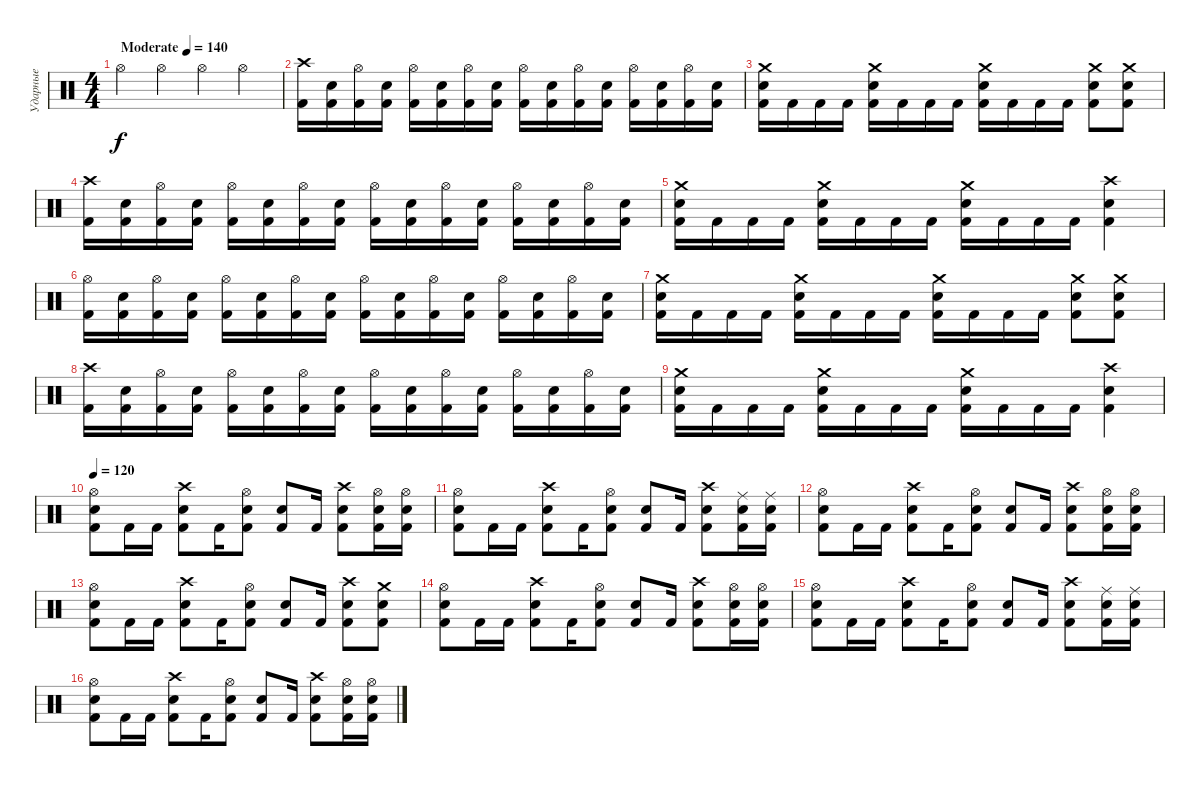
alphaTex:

\track ("Ударные" "Ударные") {instrument percussion}
\staff {score}
\articulation defaults
\ts (4 4)
\tempo (140 "Moderate")
\clef neutral
\ks c "Hi-Hat (open)".4{dy f} "Hi-Hat (open)".4 "Hi-Hat (open)".4 "Hi-Hat (open)".4
|
("Crash high (hit)" "Kick (hit) 2").16 ("Electric Snare (hit)" "Kick (hit) 2").16 ("Hi-Hat (open)" "Kick (hit) 2").16 ("Electric Snare (hit)" "Kick (hit) 2").16 ("Hi-Hat (open)" "Kick (hit) 2").16 ("Electric Snare (hit)" "Kick (hit) 2").16 ("Hi-Hat (open)" "Kick (hit) 2").16 ("Electric Snare (hit)" "Kick (hit) 2").16 ("Hi-Hat (open)" "Kick (hit) 2").16 ("Electric Snare (hit)" "Kick (hit) 2").16 ("Hi-Hat (open)" "Kick (hit) 2").16 ("Electric Snare (hit)" "Kick (hit) 2").16 ("Hi-Hat (open)" "Kick (hit) 2").16 ("Electric Snare (hit)" "Kick (hit) 2").16 ("Hi-Hat (open)" "Kick (hit) 2").16 ("Electric Snare (hit)" "Kick (hit) 2").16 |
("Crash medium (hit)" "Electric Snare (hit)" "Kick (hit) 2").16 "Kick (hit) 2".16 "Kick (hit) 2".16 "Kick (hit) 2".16 ("Crash medium (hit)" "Electric Snare (hit)" "Kick (hit) 2").16 "Kick (hit) 2".16 "Kick (hit) 2".16 "Kick (hit) 2".16 ("Crash medium (hit)" "Electric Snare (hit)" "Kick (hit) 2").16 "Kick (hit) 2".16 "Kick (hit) 2".16 "Kick (hit) 2".16 ("Crash medium (hit)" "Electric Snare (hit)" "Kick (hit) 2").8 ("Crash medium (hit)" "Electric Snare (hit)" "Kick (hit) 2").8 |
("Crash high (hit)" "Kick (hit) 2").16 ("Electric Snare (hit)" "Kick (hit) 2").16 ("Hi-Hat (open)" "Kick (hit) 2").16 ("Electric Snare (hit)" "Kick (hit) 2").16 ("Hi-Hat (open)" "Kick (hit) 2").16 ("Electric Snare (hit)" "Kick (hit) 2").16 ("Hi-Hat (open)" "Kick (hit) 2").16 ("Electric Snare (hit)" "Kick (hit) 2").16 ("Hi-Hat (open)" "Kick (hit) 2").16 ("Electric Snare (hit)" "Kick (hit) 2").16 ("Hi-Hat (open)" "Kick (hit) 2").16 ("Electric Snare (hit)" "Kick (hit) 2").16 ("Hi-Hat (open)" "Kick (hit) 2").16 ("Electric Snare (hit)" "Kick (hit) 2").16 ("Hi-Hat (open)" "Kick (hit) 2").16 ("Electric Snare (hit)" "Kick (hit) 2").16 |
("Crash medium (hit)" "Electric Snare (hit)" "Kick (hit) 2").16 "Kick (hit) 2".16 "Kick (hit) 2".16 "Kick (hit) 2".16 ("Crash medium (hit)" "Electric Snare (hit)" "Kick (hit) 2").16 "Kick (hit) 2".16 "Kick (hit) 2".16 "Kick (hit) 2".16 ("Crash medium (hit)" "Electric Snare (hit)" "Kick (hit) 2").16 "Kick (hit) 2".16 "Kick (hit) 2".16 "Kick (hit) 2".16 ("Crash high (hit)" "Electric Snare (hit)" "Kick (hit) 2").4 |
("Hi-Hat (open)" "Kick (hit) 2").16 ("Electric Snare (hit)" "Kick (hit) 2").16 ("Hi-Hat (open)" "Kick (hit) 2").16 ("Electric Snare (hit)" "Kick (hit) 2").16 ("Hi-Hat (open)" "Kick (hit) 2").16 ("Electric Snare (hit)" "Kick (hit) 2").16 ("Hi-Hat (open)" "Kick (hit) 2").16 ("Electric Snare (hit)" "Kick (hit) 2").16 ("Hi-Hat (open)" "Kick (hit) 2").16 ("Electric Snare (hit)" "Kick (hit) 2").16 ("Hi-Hat (open)" "Kick (hit) 2").16 ("Electric Snare (hit)" "Kick (hit) 2").16 ("Hi-Hat (open)" "Kick (hit) 2").16 ("Electric Snare (hit)" "Kick (hit) 2").16 ("Hi-Hat (open)" "Kick (hit) 2").16 ("Electric Snare (hit)" "Kick (hit) 2").16 |
("Crash medium (hit)" "Electric Snare (hit)" "Kick (hit) 2").16 "Kick (hit) 2".16 "Kick (hit) 2".16 "Kick (hit) 2".16 ("Crash medium (hit)" "Electric Snare (hit)" "Kick (hit) 2").16 "Kick (hit) 2".16 "Kick (hit) 2".16 "Kick (hit) 2".16 ("Crash medium (hit)" "Electric Snare (hit)" "Kick (hit) 2").16 "Kick (hit) 2".16 "Kick (hit) 2".16 "Kick (hit) 2".16 ("Crash medium (hit)" "Electric Snare (hit)" "Kick (hit) 2").8 ("Crash medium (hit)" "Electric Snare (hit)" "Kick (hit) 2").8 |
("Crash high (hit)" "Kick (hit) 2").16 ("Electric Snare (hit)" "Kick (hit) 2").16 ("Hi-Hat (open)" "Kick (hit) 2").16 ("Electric Snare (hit)" "Kick (hit) 2").16 ("Hi-Hat (open)" "Kick (hit) 2").16 ("Electric Snare (hit)" "Kick (hit) 2").16 ("Hi-Hat (open)" "Kick (hit) 2").16 ("Electric Snare (hit)" "Kick (hit) 2").16 ("Hi-Hat (open)" "Kick (hit) 2").16 ("Electric Snare (hit)" "Kick (hit) 2").16 ("Hi-Hat (open)" "Kick (hit) 2").16 ("Electric Snare (hit)" "Kick (hit) 2").16 ("Hi-Hat (open)" "Kick (hit) 2").16 ("Electric Snare (hit)" "Kick (hit) 2").16 ("Hi-Hat (open)" "Kick (hit) 2").16 ("Electric Snare (hit)" "Kick (hit) 2").16 |
("Crash medium (hit)" "Electric Snare (hit)" "Kick (hit) 2").16 "Kick (hit) 2".16 "Kick (hit) 2".16 "Kick (hit) 2".16 ("Crash medium (hit)" "Electric Snare (hit)" "Kick (hit) 2").16 "Kick (hit) 2".16 "Kick (hit) 2".16 "Kick (hit) 2".16 ("Crash medium (hit)" "Electric Snare (hit)" "Kick (hit) 2").16 "Kick (hit) 2".16 "Kick (hit) 2".16 "Kick (hit) 2".16 ("Crash high (hit)" "Electric Snare (hit)" "Kick (hit) 2").4 |
\tempo 130
\tempo 120
("Hi-Hat (open)" "Electric Snare (hit)" "Kick (hit) 2").8 "Kick (hit) 2".16 "Kick (hit) 2".16 ("Crash high (hit)" "Electric Snare (hit)" "Kick (hit) 2").8 "Kick (hit) 2".16 ("Hi-Hat (open)" "Electric Snare (hit)" "Kick (hit) 2").8 ("Electric Snare (hit)" "Kick (hit) 2").8 "Kick (hit) 2".16 ("Crash high (hit)" "Electric Snare (hit)" "Kick (hit) 2").8 ("Hi-Hat (open)" "Electric Snare (hit)" "Kick (hit) 2").16 ("Hi-Hat (open)" "Electric Snare (hit)" "Kick (hit) 2").16 |
("Hi-Hat (open)" "Electric Snare (hit)" "Kick (hit) 2").8 "Kick (hit) 2".16 "Kick (hit) 2".16 ("Crash high (hit)" "Electric Snare (hit)" "Kick (hit) 2").8 "Kick (hit) 2".16 ("Hi-Hat (open)" "Electric Snare (hit)" "Kick (hit) 2").8 ("Electric Snare (hit)" "Kick (hit) 2").8 "Kick (hit) 2".16 ("Crash high (hit)" "Electric Snare (hit)" "Kick (hit) 2").8 ("Ride (middle)" "Electric Snare (hit)" "Kick (hit) 2").16 ("Ride (middle)" "Electric Snare (hit)" "Kick (hit) 2").16 |
("Hi-Hat (open)" "Electric Snare (hit)" "Kick (hit) 2").8 "Kick (hit) 2".16 "Kick (hit) 2".16 ("Crash high (hit)" "Electric Snare (hit)" "Kick (hit) 2").8 "Kick (hit) 2".16 ("Hi-Hat (open)" "Electric Snare (hit)" "Kick (hit) 2").8 ("Electric Snare (hit)" "Kick (hit) 2").8 "Kick (hit) 2".16 ("Crash high (hit)" "Electric Snare (hit)" "Kick (hit) 2").8 ("Hi-Hat (open)" "Electric Snare (hit)" "Kick (hit) 2").16 ("Hi-Hat (open)" "Electric Snare (hit)" "Kick (hit) 2").16 |
("Hi-Hat (open)" "Electric Snare (hit)" "Kick (hit) 2").8 "Kick (hit) 2".16 "Kick (hit) 2".16 ("Crash high (hit)" "Electric Snare (hit)" "Kick (hit) 2").8 "Kick (hit) 2".16 ("Hi-Hat (open)" "Electric Snare (hit)" "Kick (hit) 2").8 ("Electric Snare (hit)" "Kick (hit) 2").8 "Kick (hit) 2".16 ("Crash high (hit)" "Electric Snare (hit)" "Kick (hit) 2").8 ("Crash medium (hit)" "Electric Snare (hit)" "Kick (hit) 2").8 |
("Hi-Hat (open)" "Electric Snare (hit)" "Kick (hit) 2").8 "Kick (hit) 2".16 "Kick (hit) 2".16 ("Crash high (hit)" "Electric Snare (hit)" "Kick (hit) 2").8 "Kick (hit) 2".16 ("Hi-Hat (open)" "Electric Snare (hit)" "Kick (hit) 2").8 ("Electric Snare (hit)" "Kick (hit) 2").8 "Kick (hit) 2".16 ("Crash high (hit)" "Electric Snare (hit)" "Kick (hit) 2").8 ("Hi-Hat (open)" "Electric Snare (hit)" "Kick (hit) 2").16 ("Hi-Hat (open)" "Electric Snare (hit)" "Kick (hit) 2").16 |
("Hi-Hat (open)" "Electric Snare (hit)" "Kick (hit) 2").8 "Kick (hit) 2".16 "Kick (hit) 2".16 ("Crash high (hit)" "Electric Snare (hit)" "Kick (hit) 2").8 "Kick (hit) 2".16 ("Hi-Hat (open)" "Electric Snare (hit)" "Kick (hit) 2").8 ("Electric Snare (hit)" "Kick (hit) 2").8 "Kick (hit) 2".16 ("Crash high (hit)" "Electric Snare (hit)" "Kick (hit) 2").8 ("Ride (middle)" "Electric Snare (hit)" "Kick (hit) 2").16 ("Ride (middle)" "Electric Snare (hit)" "Kick (hit) 2").16 |
("Hi-Hat (open)" "Electric Snare (hit)" "Kick (hit) 2").8 "Kick (hit) 2".16 "Kick (hit) 2".16 ("Crash high (hit)" "Electric Snare (hit)" "Kick (hit) 2").8 "Kick (hit) 2".16 ("Hi-Hat (open)" "Electric Snare (hit)" "Kick (hit) 2").8 ("Electric Snare (hit)" "Kick (hit) 2").8 "Kick (hit) 2".16 ("Crash high (hit)" "Electric Snare (hit)" "Kick (hit) 2").8 ("Hi-Hat (open)" "Electric Snare (hit)" "Kick (hit) 2").16 ("Hi-Hat (open)" "Electric Snare (hit)" "Kick (hit) 2").16
